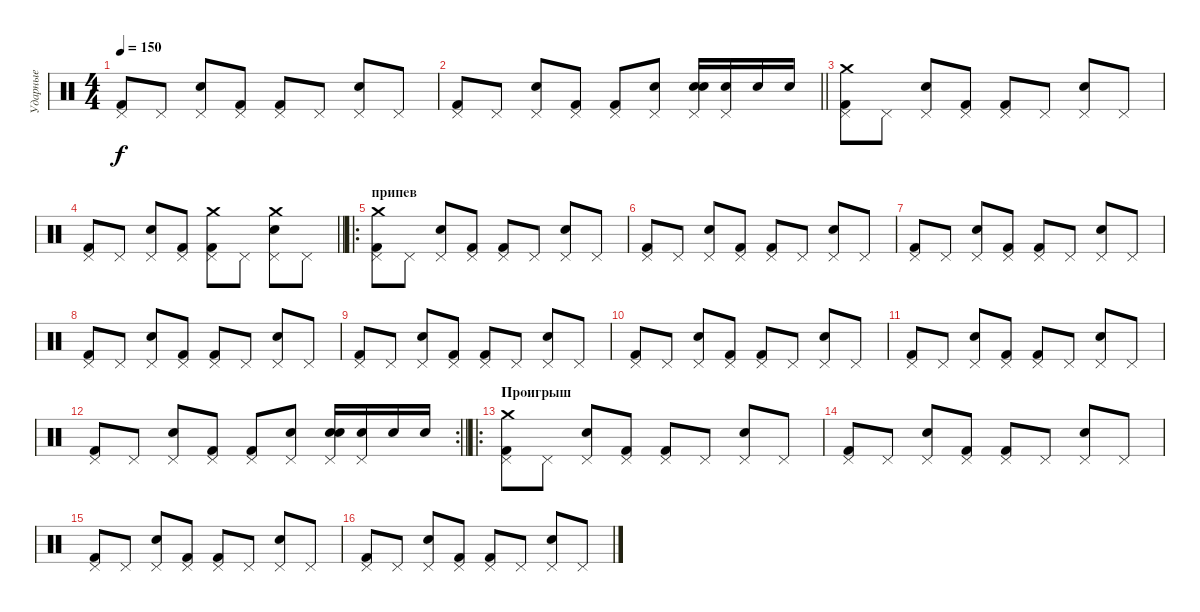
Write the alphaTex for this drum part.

\track ("Ударные" "Ударные") {instrument percussion}
\staff {score}
\articulation defaults
\ts (4 4)
\tempo 150
\clef neutral
\ks c
("Pedal Hi-Hat (hit)" "Kick (hit) 2").8{dy f} "Pedal Hi-Hat (hit)".8 ("Pedal Hi-Hat (hit)" "Electric Snare (hit)").8 ("Pedal Hi-Hat (hit)" "Kick (hit) 2").8 ("Pedal Hi-Hat (hit)" "Kick (hit) 2").8 "Pedal Hi-Hat (hit)".8 ("Pedal Hi-Hat (hit)" "Electric Snare (hit)").8 "Pedal Hi-Hat (hit)".8 |
\barLineRight lightlight
("Pedal Hi-Hat (hit)" "Kick (hit) 2").8 "Pedal Hi-Hat (hit)".8 ("Pedal Hi-Hat (hit)" "Electric Snare (hit)").8 ("Pedal Hi-Hat (hit)" "Kick (hit) 2").8 ("Pedal Hi-Hat (hit)" "Kick (hit) 2").8 ("Pedal Hi-Hat (hit)" "Electric Snare (hit)").8 ("Electric Snare (hit)" "Pedal Hi-Hat (hit)" "Electric Snare (hit)").16 ("Electric Snare (hit)" "Pedal Hi-Hat (hit)").16 "Electric Snare (hit)".16 "Electric Snare (hit)".16 |
("Crash medium (hit)" "Pedal Hi-Hat (hit)" "Kick (hit) 2").8 "Pedal Hi-Hat (hit)".8 ("Pedal Hi-Hat (hit)" "Electric Snare (hit)").8 ("Pedal Hi-Hat (hit)" "Kick (hit) 2").8 ("Pedal Hi-Hat (hit)" "Kick (hit) 2").8 "Pedal Hi-Hat (hit)".8 ("Pedal Hi-Hat (hit)" "Electric Snare (hit)").8 "Pedal Hi-Hat (hit)".8 |
\barLineRight lightlight
("Pedal Hi-Hat (hit)" "Kick (hit) 2").8 "Pedal Hi-Hat (hit)".8 ("Pedal Hi-Hat (hit)" "Electric Snare (hit)").8 ("Pedal Hi-Hat (hit)" "Kick (hit) 2").8 ("Crash medium (hit)" "Pedal Hi-Hat (hit)" "Kick (hit) 2").8 "Pedal Hi-Hat (hit)".8 ("Crash medium (hit)" "Pedal Hi-Hat (hit)" "Electric Snare (hit)").8 "Pedal Hi-Hat (hit)".8 |
\ro
\section ("" "припев")
("Crash medium (hit)" "Pedal Hi-Hat (hit)" "Kick (hit) 2").8 "Pedal Hi-Hat (hit)".8 ("Pedal Hi-Hat (hit)" "Electric Snare (hit)").8 ("Pedal Hi-Hat (hit)" "Kick (hit) 2").8 ("Pedal Hi-Hat (hit)" "Kick (hit) 2").8 "Pedal Hi-Hat (hit)".8 ("Pedal Hi-Hat (hit)" "Electric Snare (hit)").8 "Pedal Hi-Hat (hit)".8 |
("Pedal Hi-Hat (hit)" "Kick (hit) 2").8 "Pedal Hi-Hat (hit)".8 ("Pedal Hi-Hat (hit)" "Electric Snare (hit)").8 ("Pedal Hi-Hat (hit)" "Kick (hit) 2").8 ("Pedal Hi-Hat (hit)" "Kick (hit) 2").8 "Pedal Hi-Hat (hit)".8 ("Pedal Hi-Hat (hit)" "Electric Snare (hit)").8 "Pedal Hi-Hat (hit)".8 |
("Pedal Hi-Hat (hit)" "Kick (hit) 2").8 "Pedal Hi-Hat (hit)".8 ("Pedal Hi-Hat (hit)" "Electric Snare (hit)").8 ("Pedal Hi-Hat (hit)" "Kick (hit) 2").8 ("Pedal Hi-Hat (hit)" "Kick (hit) 2").8 "Pedal Hi-Hat (hit)".8 ("Pedal Hi-Hat (hit)" "Electric Snare (hit)").8 "Pedal Hi-Hat (hit)".8 |
("Pedal Hi-Hat (hit)" "Kick (hit) 2").8 "Pedal Hi-Hat (hit)".8 ("Pedal Hi-Hat (hit)" "Electric Snare (hit)").8 ("Pedal Hi-Hat (hit)" "Kick (hit) 2").8 ("Pedal Hi-Hat (hit)" "Kick (hit) 2").8 "Pedal Hi-Hat (hit)".8 ("Pedal Hi-Hat (hit)" "Electric Snare (hit)").8 "Pedal Hi-Hat (hit)".8 |
("Pedal Hi-Hat (hit)" "Kick (hit) 2").8 "Pedal Hi-Hat (hit)".8 ("Pedal Hi-Hat (hit)" "Electric Snare (hit)").8 ("Pedal Hi-Hat (hit)" "Kick (hit) 2").8 ("Pedal Hi-Hat (hit)" "Kick (hit) 2").8 "Pedal Hi-Hat (hit)".8 ("Pedal Hi-Hat (hit)" "Electric Snare (hit)").8 "Pedal Hi-Hat (hit)".8 |
("Pedal Hi-Hat (hit)" "Kick (hit) 2").8 "Pedal Hi-Hat (hit)".8 ("Pedal Hi-Hat (hit)" "Electric Snare (hit)").8 ("Pedal Hi-Hat (hit)" "Kick (hit) 2").8 ("Pedal Hi-Hat (hit)" "Kick (hit) 2").8 "Pedal Hi-Hat (hit)".8 ("Pedal Hi-Hat (hit)" "Electric Snare (hit)").8 "Pedal Hi-Hat (hit)".8 |
("Pedal Hi-Hat (hit)" "Kick (hit) 2").8 "Pedal Hi-Hat (hit)".8 ("Pedal Hi-Hat (hit)" "Electric Snare (hit)").8 ("Pedal Hi-Hat (hit)" "Kick (hit) 2").8 ("Pedal Hi-Hat (hit)" "Kick (hit) 2").8 "Pedal Hi-Hat (hit)".8 ("Pedal Hi-Hat (hit)" "Electric Snare (hit)").8 "Pedal Hi-Hat (hit)".8 |
\rc 2
\barLineRight lightlight
("Pedal Hi-Hat (hit)" "Kick (hit) 2").8 "Pedal Hi-Hat (hit)".8 ("Pedal Hi-Hat (hit)" "Electric Snare (hit)").8 ("Pedal Hi-Hat (hit)" "Kick (hit) 2").8 ("Pedal Hi-Hat (hit)" "Kick (hit) 2").8 ("Pedal Hi-Hat (hit)" "Electric Snare (hit)").8 ("Electric Snare (hit)" "Pedal Hi-Hat (hit)" "Electric Snare (hit)").16 ("Electric Snare (hit)" "Pedal Hi-Hat (hit)").16 "Electric Snare (hit)".16 "Electric Snare (hit)".16 |
\ro
\section ("" "Проигрыш")
("Crash medium (hit)" "Pedal Hi-Hat (hit)" "Kick (hit) 2").8 "Pedal Hi-Hat (hit)".8 ("Pedal Hi-Hat (hit)" "Electric Snare (hit)").8 ("Pedal Hi-Hat (hit)" "Kick (hit) 2").8 ("Pedal Hi-Hat (hit)" "Kick (hit) 2").8 "Pedal Hi-Hat (hit)".8 ("Pedal Hi-Hat (hit)" "Electric Snare (hit)").8 "Pedal Hi-Hat (hit)".8 |
("Pedal Hi-Hat (hit)" "Kick (hit) 2").8 "Pedal Hi-Hat (hit)".8 ("Pedal Hi-Hat (hit)" "Electric Snare (hit)").8 ("Pedal Hi-Hat (hit)" "Kick (hit) 2").8 ("Pedal Hi-Hat (hit)" "Kick (hit) 2").8 "Pedal Hi-Hat (hit)".8 ("Pedal Hi-Hat (hit)" "Electric Snare (hit)").8 "Pedal Hi-Hat (hit)".8 |
("Pedal Hi-Hat (hit)" "Kick (hit) 2").8 "Pedal Hi-Hat (hit)".8 ("Pedal Hi-Hat (hit)" "Electric Snare (hit)").8 ("Pedal Hi-Hat (hit)" "Kick (hit) 2").8 ("Pedal Hi-Hat (hit)" "Kick (hit) 2").8 "Pedal Hi-Hat (hit)".8 ("Pedal Hi-Hat (hit)" "Electric Snare (hit)").8 "Pedal Hi-Hat (hit)".8 |
("Pedal Hi-Hat (hit)" "Kick (hit) 2").8 "Pedal Hi-Hat (hit)".8 ("Pedal Hi-Hat (hit)" "Electric Snare (hit)").8 ("Pedal Hi-Hat (hit)" "Kick (hit) 2").8 ("Pedal Hi-Hat (hit)" "Kick (hit) 2").8 "Pedal Hi-Hat (hit)".8 ("Pedal Hi-Hat (hit)" "Electric Snare (hit)").8 "Pedal Hi-Hat (hit)".8
